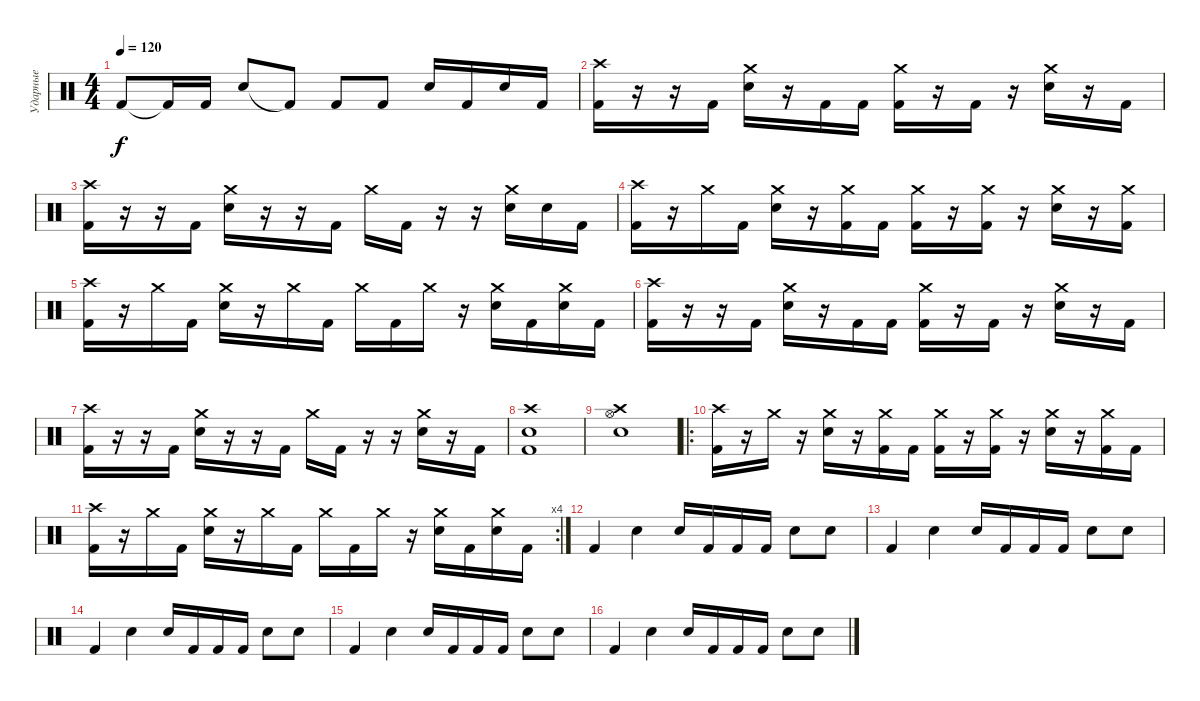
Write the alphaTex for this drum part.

\track ("Ударные" "Ударные") {instrument percussion}
\staff {score}
\articulation defaults
\ts (4 4)
\tempo 120
\clef neutral
\ks c "Kick (hit) 2".8{dy f} "Kick (hit) 2"{t}.16 "Kick (hit) 2".16 "Electric Snare (hit)".8 "Kick (hit) 2"{t}.8 "Kick (hit) 2".8 "Kick (hit) 2".8 "Electric Snare (hit)".16 "Kick (hit) 2".16 "Electric Snare (hit)".16 "Kick (hit) 2".16
|
("Crash high (hit)" "Kick (hit) 2").16 r.16 r.16 "Kick (hit) 2".16 ("Crash medium (hit)" "Electric Snare (hit)").16 r.16 "Kick (hit) 2".16 "Kick (hit) 2".16 ("Crash medium (hit)" "Kick (hit) 2").16 r.16 "Kick (hit) 2".16 r.16 ("Crash medium (hit)" "Electric Snare (hit)").16 r.16 "Kick (hit) 2".16 |
("Crash high (hit)" "Kick (hit) 2").16 r.16 r.16 "Kick (hit) 2".16 ("Crash medium (hit)" "Electric Snare (hit)").16 r.16 r.16 "Kick (hit) 2".16 "Crash medium (hit)".16 "Kick (hit) 2".16 r.16 r.16 ("Crash medium (hit)" "Electric Snare (hit)").16 "Snare (hit)".16 "Kick (hit) 2".16 |
("Crash high (hit)" "Kick (hit) 2").16 r.16 "Crash medium (hit)".16 "Kick (hit) 2".16 ("Crash medium (hit)" "Electric Snare (hit)").16 r.16 ("Crash medium (hit)" "Kick (hit) 2").16 "Kick (hit) 2".16 ("Crash medium (hit)" "Kick (hit) 2").16 r.16 ("Crash medium (hit)" "Kick (hit) 2").16 r.16 ("Crash medium (hit)" "Electric Snare (hit)").16 r.16 ("Crash medium (hit)" "Kick (hit) 2").16 |
("Crash high (hit)" "Kick (hit) 2").16 r.16 "Crash medium (hit)".16 "Kick (hit) 2".16 ("Crash medium (hit)" "Electric Snare (hit)").16 r.16 "Crash medium (hit)".16 "Kick (hit) 2".16 "Crash medium (hit)".16 "Kick (hit) 2".16 "Crash medium (hit)".16 r.16 ("Crash medium (hit)" "Electric Snare (hit)").16 "Kick (hit) 2".16 ("Crash medium (hit)" "Electric Snare (hit)").16 "Kick (hit) 2".16 |
("Crash high (hit)" "Kick (hit) 2").16 r.16 r.16 "Kick (hit) 2".16 ("Crash medium (hit)" "Electric Snare (hit)").16 r.16 "Kick (hit) 2".16 "Kick (hit) 2".16 ("Crash medium (hit)" "Kick (hit) 2").16 r.16 "Kick (hit) 2".16 r.16 ("Crash medium (hit)" "Electric Snare (hit)").16 r.16 "Kick (hit) 2".16 |
("Crash high (hit)" "Kick (hit) 2").16 r.16 r.16 "Kick (hit) 2".16 ("Crash medium (hit)" "Electric Snare (hit)").16 r.16 r.16 "Kick (hit) 2".16 "Crash medium (hit)".16 "Kick (hit) 2".16 r.16 r.16 ("Crash medium (hit)" "Electric Snare (hit)").16 r.16 "Kick (hit) 2".16 |
("Crash high (hit)" "Kick (hit) 2" "Snare (hit) 2").1 |
("Crash high (hit)" "Hi-Hat (open)" "Snare (hit) 2").1 |
\ro
("Crash high (hit)" "Kick (hit) 2").16 r.16 "Crash medium (hit)".16 r.16 ("Crash medium (hit)" "Electric Snare (hit)").16 r.16 ("Crash medium (hit)" "Kick (hit) 2").16 "Kick (hit) 2".16 ("Crash medium (hit)" "Kick (hit) 2").16 r.16 ("Crash medium (hit)" "Kick (hit) 2").16 r.16 ("Crash medium (hit)" "Electric Snare (hit)").16 r.16 ("Crash medium (hit)" "Kick (hit) 2").16 "Kick (hit) 2".16 |
\rc 4
("Crash high (hit)" "Kick (hit) 2").16 r.16 "Crash medium (hit)".16 "Kick (hit) 2".16 ("Crash medium (hit)" "Electric Snare (hit)").16 r.16 "Crash medium (hit)".16 "Kick (hit) 2".16 "Crash medium (hit)".16 "Kick (hit) 2".16 "Crash medium (hit)".16 r.16 ("Crash medium (hit)" "Electric Snare (hit)").16 "Kick (hit) 2".16 ("Crash medium (hit)" "Electric Snare (hit)").16 "Kick (hit) 2".16 |
"Kick (hit) 2".4 "Electric Snare (hit)".4 "Electric Snare (hit)".16 "Kick (hit) 2".16 "Kick (hit) 2".16 "Kick (hit) 2".16 "Electric Snare (hit)".8 "Electric Snare (hit)".8 |
"Kick (hit) 2".4 "Electric Snare (hit)".4 "Electric Snare (hit)".16 "Kick (hit) 2".16 "Kick (hit) 2".16 "Kick (hit) 2".16 "Electric Snare (hit)".8 "Electric Snare (hit)".8 |
"Kick (hit) 2".4 "Electric Snare (hit)".4 "Electric Snare (hit)".16 "Kick (hit) 2".16 "Kick (hit) 2".16 "Kick (hit) 2".16 "Electric Snare (hit)".8 "Electric Snare (hit)".8 |
"Kick (hit) 2".4 "Electric Snare (hit)".4 "Electric Snare (hit)".16 "Kick (hit) 2".16 "Kick (hit) 2".16 "Kick (hit) 2".16 "Electric Snare (hit)".8 "Electric Snare (hit)".8 |
"Kick (hit) 2".4 "Electric Snare (hit)".4 "Electric Snare (hit)".16 "Kick (hit) 2".16 "Kick (hit) 2".16 "Kick (hit) 2".16 "Electric Snare (hit)".8 "Electric Snare (hit)".8
